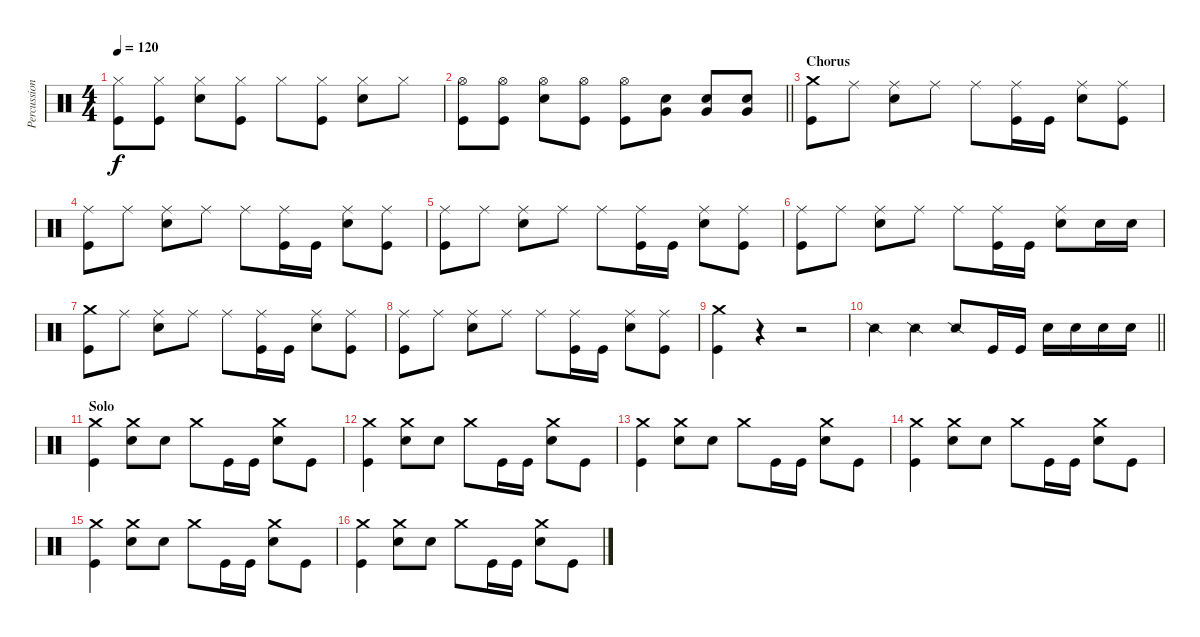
\track ("Percussion" "Percussion") {instrument percussion}
\staff {score}
\articulation defaults
\ts (4 4)
\tempo 120
\clef neutral
\ks c
("Hi-Hat (closed)" "Kick (hit)").8{dy f} ("Hi-Hat (closed)" "Kick (hit)").8 ("Hi-Hat (closed)" "Snare (hit) 2").8 ("Hi-Hat (closed)" "Kick (hit)").8 "Hi-Hat (closed)".8 ("Hi-Hat (closed)" "Kick (hit)").8 ("Hi-Hat (closed)" "Snare (hit) 2").8 "Hi-Hat (closed)".8 |
\barLineRight lightlight
("Hi-Hat (open)" "Kick (hit)").8 ("Hi-Hat (open)" "Kick (hit)").8 ("Hi-Hat (open)" "Snare (hit) 2").8 ("Hi-Hat (open)" "Kick (hit)").8 ("Hi-Hat (open)" "Kick (hit)").8 ("Snare (hit) 2" "Very Low Tom (hit)").8 ("Snare (hit) 2" "Very Low Tom (hit)").8 ("Snare (hit) 2" "Very Low Tom (hit)").8 |
\section ("" "Chorus")
("Crash medium (hit)" "Kick (hit)").8 "Ride (middle)".8 ("Ride (middle)" "Snare (hit) 2").8 "Ride (middle)".8 "Ride (middle)".8 ("Ride (middle)" "Kick (hit)").16 "Kick (hit)".16 ("Ride (middle)" "Snare (hit) 2").8 ("Ride (middle)" "Kick (hit)").8 |
("Ride (middle)" "Kick (hit)").8 "Ride (middle)".8 ("Ride (middle)" "Snare (hit) 2").8 "Ride (middle)".8 "Ride (middle)".8 ("Ride (middle)" "Kick (hit)").16 "Kick (hit)".16 ("Ride (middle)" "Snare (hit) 2").8 ("Ride (middle)" "Kick (hit)").8 |
("Ride (middle)" "Kick (hit)").8 "Ride (middle)".8 ("Ride (middle)" "Snare (hit) 2").8 "Ride (middle)".8 "Ride (middle)".8 ("Ride (middle)" "Kick (hit)").16 "Kick (hit)".16 ("Ride (middle)" "Snare (hit) 2").8 ("Ride (middle)" "Kick (hit)").8 |
("Ride (middle)" "Kick (hit)").8 "Ride (middle)".8 ("Ride (middle)" "Snare (hit) 2").8 "Ride (middle)".8 "Ride (middle)".8 ("Ride (middle)" "Kick (hit)").16 "Kick (hit)".16 ("Ride (middle)" "Snare (hit) 2").8 "Snare (hit) 2".16 "Snare (hit) 2".16 |
("Crash medium (hit)" "Kick (hit)").8 "Ride (middle)".8 ("Ride (middle)" "Snare (hit) 2").8 "Ride (middle)".8 "Ride (middle)".8 ("Ride (middle)" "Kick (hit)").16 "Kick (hit)".16 ("Ride (middle)" "Snare (hit) 2").8 ("Ride (middle)" "Kick (hit)").8 |
("Ride (middle)" "Kick (hit)").8 "Ride (middle)".8 ("Ride (middle)" "Snare (hit) 2").8 "Ride (middle)".8 "Ride (middle)".8 ("Ride (middle)" "Kick (hit)").16 "Kick (hit)".16 ("Ride (middle)" "Snare (hit) 2").8 ("Ride (middle)" "Kick (hit)").8 |
("Crash medium (hit)" "Kick (hit)").4 r.4 r.2 |
\barLineRight lightlight "Snare (side stick) 2".4 "Snare (side stick) 2".4 "Snare (side stick) 2".8 "Kick (hit)".16 "Kick (hit)".16 "Snare (hit) 2".16 "Snare (hit) 2".16 "Snare (hit) 2".16 "Snare (hit) 2".16
|
\section ("" "Solo")
("Crash medium (hit)" "Kick (hit)").4 ("Crash medium (hit)" "Snare (hit) 2").8 "Snare (hit) 2".8 "Crash medium (hit)".8 "Kick (hit)".16 "Kick (hit)".16 ("Crash medium (hit)" "Snare (hit) 2").8 "Kick (hit)".8 |
("Crash medium (hit)" "Kick (hit)").4 ("Crash medium (hit)" "Snare (hit) 2").8 "Snare (hit) 2".8 "Crash medium (hit)".8 "Kick (hit)".16 "Kick (hit)".16 ("Crash medium (hit)" "Snare (hit) 2").8 "Kick (hit)".8 |
("Crash medium (hit)" "Kick (hit)").4 ("Crash medium (hit)" "Snare (hit) 2").8 "Snare (hit) 2".8 "Crash medium (hit)".8 "Kick (hit)".16 "Kick (hit)".16 ("Crash medium (hit)" "Snare (hit) 2").8 "Kick (hit)".8 |
("Crash medium (hit)" "Kick (hit)").4 ("Crash medium (hit)" "Snare (hit) 2").8 "Snare (hit) 2".8 "Crash medium (hit)".8 "Kick (hit)".16 "Kick (hit)".16 ("Crash medium (hit)" "Snare (hit) 2").8 "Kick (hit)".8 |
("Crash medium (hit)" "Kick (hit)").4 ("Crash medium (hit)" "Snare (hit) 2").8 "Snare (hit) 2".8 "Crash medium (hit)".8 "Kick (hit)".16 "Kick (hit)".16 ("Crash medium (hit)" "Snare (hit) 2").8 "Kick (hit)".8 |
("Crash medium (hit)" "Kick (hit)").4 ("Crash medium (hit)" "Snare (hit) 2").8 "Snare (hit) 2".8 "Crash medium (hit)".8 "Kick (hit)".16 "Kick (hit)".16 ("Crash medium (hit)" "Snare (hit) 2").8 "Kick (hit)".8
